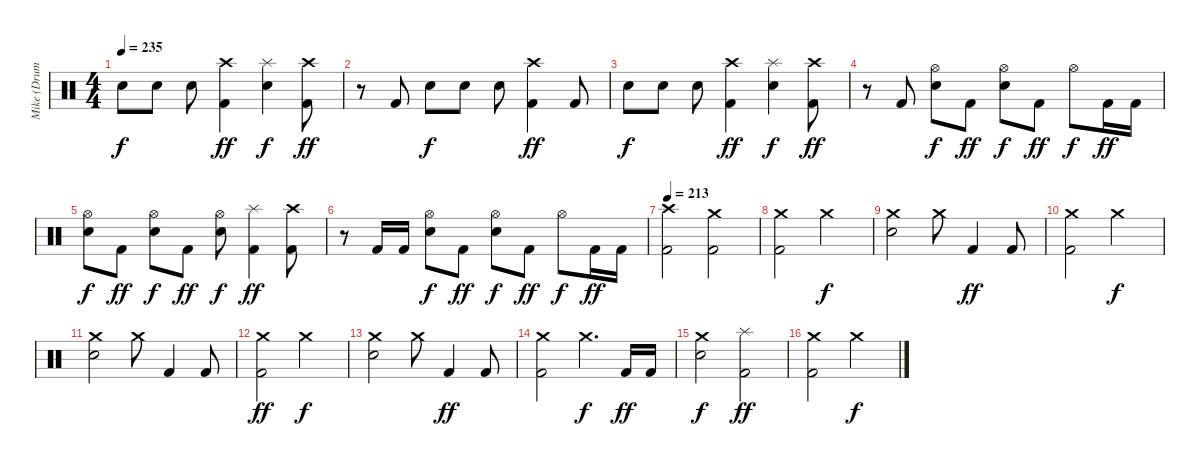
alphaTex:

\track ("Mike (Drums)" "Mike (Drum") {instrument percussion}
\staff {score}
\articulation defaults
\ts (4 4)
\tempo 235
\clef neutral
\ks c "Electric Snare (hit)".8{dy f} "Electric Snare (hit)".8 "Electric Snare (hit)".8
("Crash high (hit)" "Kick (hit) 2").4{dy ff} ("Splash (hit)" "Electric Snare (hit)").4{dy f} ("Crash high (hit)" "Kick (hit) 2").8{dy ff} |
r.8 "Kick (hit) 2".8 "Electric Snare (hit)".8{dy f} "Electric Snare (hit)".8 "Electric Snare (hit)".8 ("Crash high (hit)" "Kick (hit) 2").4{dy ff} "Kick (hit) 2".8 |
"Electric Snare (hit)".8{dy f} "Electric Snare (hit)".8 "Electric Snare (hit)".8 ("Crash high (hit)" "Kick (hit) 2").4{dy ff} ("Splash (hit)" "Electric Snare (hit)").4{dy f} ("Crash high (hit)" "Kick (hit) 2").8{dy ff} |
r.8 "Kick (hit) 2".8 ("Hi-Hat (open)" "Electric Snare (hit)").8{dy f} "Kick (hit) 2".8{dy ff} ("Hi-Hat (open)" "Electric Snare (hit)").8{dy f} "Kick (hit) 2".8{dy ff} "Hi-Hat (open)".8{dy f} "Kick (hit) 2".16{dy ff} "Kick (hit) 2".16 |
("Hi-Hat (open)" "Electric Snare (hit)").8{dy f} "Kick (hit) 2".8{dy ff} ("Hi-Hat (open)" "Electric Snare (hit)").8{dy f} "Kick (hit) 2".8{dy ff} ("Hi-Hat (open)" "Electric Snare (hit)").8{dy f} ("Splash (hit)" "Kick (hit) 2").4{dy ff} ("Crash high (hit)" "Kick (hit) 2").8 |
r.8 "Kick (hit) 2".16 "Kick (hit) 2".16 ("Hi-Hat (open)" "Electric Snare (hit)").8{dy f} "Kick (hit) 2".8{dy ff} ("Hi-Hat (open)" "Electric Snare (hit)").8{dy f} "Kick (hit) 2".8{dy ff} "Hi-Hat (open)".8{dy f} "Kick (hit) 2".16{dy ff} "Kick (hit) 2".16 |
\tempo 213
("Crash high (hit)" "Kick (hit) 2").2 ("Crash medium (hit)" "Kick (hit) 2").2 |
("Crash medium (hit)" "Kick (hit) 2").2 "Crash medium (hit)".2{dy f} |
("Crash medium (hit)" "Electric Snare (hit)").2 "Crash medium (hit)".8 "Kick (hit) 2".4{dy ff} "Kick (hit) 2".8 |
("Crash medium (hit)" "Kick (hit) 2").2 "Crash medium (hit)".2{dy f} |
("Crash medium (hit)" "Electric Snare (hit)").2 "Crash medium (hit)".8 "Kick (hit) 2".4 "Kick (hit) 2".8 |
("Crash medium (hit)" "Kick (hit) 2").2{dy ff} "Crash medium (hit)".2{dy f} |
("Crash medium (hit)" "Electric Snare (hit)").2 "Crash medium (hit)".8 "Kick (hit) 2".4{dy ff} "Kick (hit) 2".8 |
("Crash medium (hit)" "Kick (hit) 2").2 "Crash medium (hit)".4{d dy f} "Kick (hit) 2".16{dy ff} "Kick (hit) 2".16 |
("Crash medium (hit)" "Electric Snare (hit)").2{dy f} ("Splash (hit)" "Kick (hit) 2").2{dy ff} |
("Crash medium (hit)" "Kick (hit) 2").2 "Crash medium (hit)".2{dy f}
